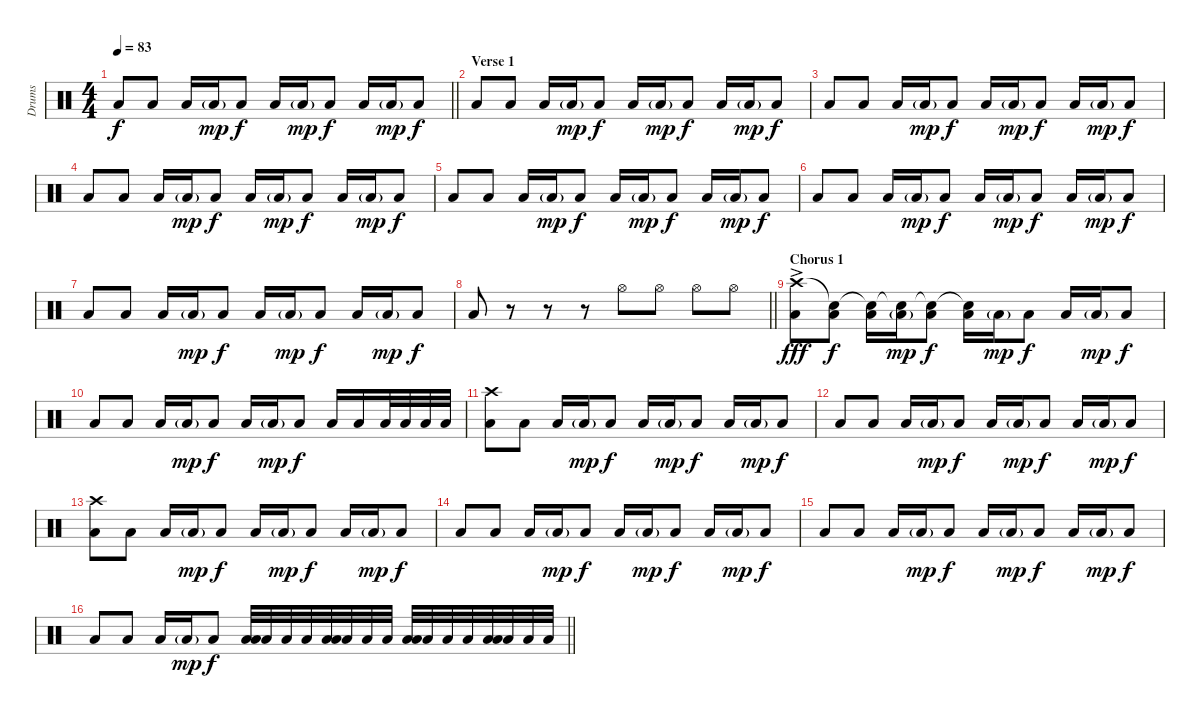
\track ("Drums" "Drums") {instrument percussion}
\staff {score}
\articulation defaults
\ts (4 4)
\tempo 83
\clef neutral
\barLineRight lightlight
\ks c "Low Floor Tom (hit)".8{dy f} "Low Tom (hit)".8 "Low Floor Tom (hit)".16 "Low Tom (hit)"{g}.16{dy mp} "Low Tom (hit)".8{dy f} "Low Floor Tom (hit)".16 "Low Tom (hit)"{g}.16{dy mp} "Low Tom (hit)".8{dy f} "Low Floor Tom (hit)".16 "Low Tom (hit)"{g}.16{dy mp} "Low Tom (hit)".8{dy f}
|
\section ("" "Verse 1")
"Low Floor Tom (hit)".8 "Low Tom (hit)".8 "Low Floor Tom (hit)".16 "Low Tom (hit)"{g}.16{dy mp} "Low Tom (hit)".8{dy f} "Low Floor Tom (hit)".16 "Low Tom (hit)"{g}.16{dy mp} "Low Tom (hit)".8{dy f} "Low Floor Tom (hit)".16 "Low Tom (hit)"{g}.16{dy mp} "Low Tom (hit)".8{dy f} |
"Low Floor Tom (hit)".8 "Low Tom (hit)".8 "Low Floor Tom (hit)".16 "Low Tom (hit)"{g}.16{dy mp} "Low Tom (hit)".8{dy f} "Low Floor Tom (hit)".16 "Low Tom (hit)"{g}.16{dy mp} "Low Tom (hit)".8{dy f} "Low Floor Tom (hit)".16 "Low Tom (hit)"{g}.16{dy mp} "Low Tom (hit)".8{dy f} |
"Low Floor Tom (hit)".8 "Low Tom (hit)".8 "Low Floor Tom (hit)".16 "Low Tom (hit)"{g}.16{dy mp} "Low Tom (hit)".8{dy f} "Low Floor Tom (hit)".16 "Low Tom (hit)"{g}.16{dy mp} "Low Tom (hit)".8{dy f} "Low Floor Tom (hit)".16 "Low Tom (hit)"{g}.16{dy mp} "Low Tom (hit)".8{dy f} |
"Low Floor Tom (hit)".8 "Low Tom (hit)".8 "Low Floor Tom (hit)".16 "Low Tom (hit)"{g}.16{dy mp} "Low Tom (hit)".8{dy f} "Low Floor Tom (hit)".16 "Low Tom (hit)"{g}.16{dy mp} "Low Tom (hit)".8{dy f} "Low Floor Tom (hit)".16 "Low Tom (hit)"{g}.16{dy mp} "Low Tom (hit)".8{dy f} |
"Low Floor Tom (hit)".8 "Low Tom (hit)".8 "Low Floor Tom (hit)".16 "Low Tom (hit)"{g}.16{dy mp} "Low Tom (hit)".8{dy f} "Low Floor Tom (hit)".16 "Low Tom (hit)"{g}.16{dy mp} "Low Tom (hit)".8{dy f} "Low Floor Tom (hit)".16 "Low Tom (hit)"{g}.16{dy mp} "Low Tom (hit)".8{dy f} |
"Low Floor Tom (hit)".8 "Low Tom (hit)".8 "Low Floor Tom (hit)".16 "Low Tom (hit)"{g}.16{dy mp} "Low Tom (hit)".8{dy f} "Low Floor Tom (hit)".16 "Low Tom (hit)"{g}.16{dy mp} "Low Tom (hit)".8{dy f} "Low Floor Tom (hit)".16 "Low Tom (hit)"{g}.16{dy mp} "Low Tom (hit)".8{dy f} |
\barLineRight lightlight "Low Floor Tom (hit)".8
r.8 r.8 r.8 "Hi-Hat (open)".8 "Hi-Hat (open)".8 "Hi-Hat (open)".8 "Hi-Hat (open)".8 |
\section ("" "Chorus 1")
("Crash high (hit)"{ac} "Low Floor Tom (hit)").8{dy fff} ("Snare (hit)"{t} "Low Tom (hit)").8{dy f} ("Snare (hit)"{t} "Low Floor Tom (hit)").16 ("Snare (hit)"{t} "Low Tom (hit)"{g}).16{dy mp} ("Snare (hit)"{t} "Low Tom (hit)").8{dy f} ("Snare (hit)"{t} "Low Floor Tom (hit)").16 "Low Tom (hit)"{g}.16{dy mp} "Low Tom (hit)".8{dy f} "Low Floor Tom (hit)".16 "Low Tom (hit)"{g}.16{dy mp} "Low Tom (hit)".8{dy f} |
"Low Floor Tom (hit)".8 "Low Tom (hit)".8 "Low Floor Tom (hit)".16 "Low Tom (hit)"{g}.16{dy mp} "Low Tom (hit)".8{dy f} "Low Floor Tom (hit)".16 "Low Tom (hit)"{g}.16{dy mp} "Low Tom (hit)".8{dy f} "Low Floor Tom (hit)".16 "Low Tom (hit)".16 "Low Tom (hit)".32 "Low Tom (hit)".32 "Low Tom (hit)".32 "Low Tom (hit)".32 |
("Crash high (hit)" "Low Floor Tom (hit)").8 "Low Tom (hit)".8 "Low Floor Tom (hit)".16 "Low Tom (hit)"{g}.16{dy mp} "Low Tom (hit)".8{dy f} "Low Floor Tom (hit)".16 "Low Tom (hit)"{g}.16{dy mp} "Low Tom (hit)".8{dy f} "Low Floor Tom (hit)".16 "Low Tom (hit)"{g}.16{dy mp} "Low Tom (hit)".8{dy f} |
"Low Floor Tom (hit)".8 "Low Tom (hit)".8 "Low Floor Tom (hit)".16 "Low Tom (hit)"{g}.16{dy mp} "Low Tom (hit)".8{dy f} "Low Floor Tom (hit)".16 "Low Tom (hit)"{g}.16{dy mp} "Low Tom (hit)".8{dy f} "Low Floor Tom (hit)".16 "Low Tom (hit)"{g}.16{dy mp} "Low Tom (hit)".8{dy f} |
("Crash high (hit)" "Low Floor Tom (hit)").8 "Low Tom (hit)".8 "Low Floor Tom (hit)".16 "Low Tom (hit)"{g}.16{dy mp} "Low Tom (hit)".8{dy f} "Low Floor Tom (hit)".16 "Low Tom (hit)"{g}.16{dy mp} "Low Tom (hit)".8{dy f} "Low Floor Tom (hit)".16 "Low Tom (hit)"{g}.16{dy mp} "Low Tom (hit)".8{dy f} |
"Low Floor Tom (hit)".8 "Low Tom (hit)".8 "Low Floor Tom (hit)".16 "Low Tom (hit)"{g}.16{dy mp} "Low Tom (hit)".8{dy f} "Low Floor Tom (hit)".16 "Low Tom (hit)"{g}.16{dy mp} "Low Tom (hit)".8{dy f} "Low Floor Tom (hit)".16 "Low Tom (hit)"{g}.16{dy mp} "Low Tom (hit)".8{dy f} |
"Low Floor Tom (hit)".8 "Low Tom (hit)".8 "Low Floor Tom (hit)".16 "Low Tom (hit)"{g}.16{dy mp} "Low Tom (hit)".8{dy f} "Low Floor Tom (hit)".16 "Low Tom (hit)"{g}.16{dy mp} "Low Tom (hit)".8{dy f} "Low Floor Tom (hit)".16 "Low Tom (hit)"{g}.16{dy mp} "Low Tom (hit)".8{dy f} |
\barLineRight lightlight "Low Floor Tom (hit)".8 "Low Tom (hit)".8 "Low Floor Tom (hit)".16 "Low Tom (hit)"{g}.16{dy mp} "Low Tom (hit)".8{dy f}
("Low Tom (hit)" "Low Floor Tom (hit)").32 "Low Tom (hit)".32 "Low Tom (hit)".32 "Low Tom (hit)".32 ("Low Tom (hit)" "Low Floor Tom (hit)").32 "Low Tom (hit)".32 "Low Tom (hit)".32 "Low Tom (hit)".32 ("Low Tom (hit)" "Low Floor Tom (hit)").32 "Low Tom (hit)".32 "Low Tom (hit)".32 "Low Tom (hit)".32 ("Low Tom (hit)" "Low Floor Tom (hit)").32 "Low Tom (hit)".32 "Low Tom (hit)".32 "Low Tom (hit)".32
